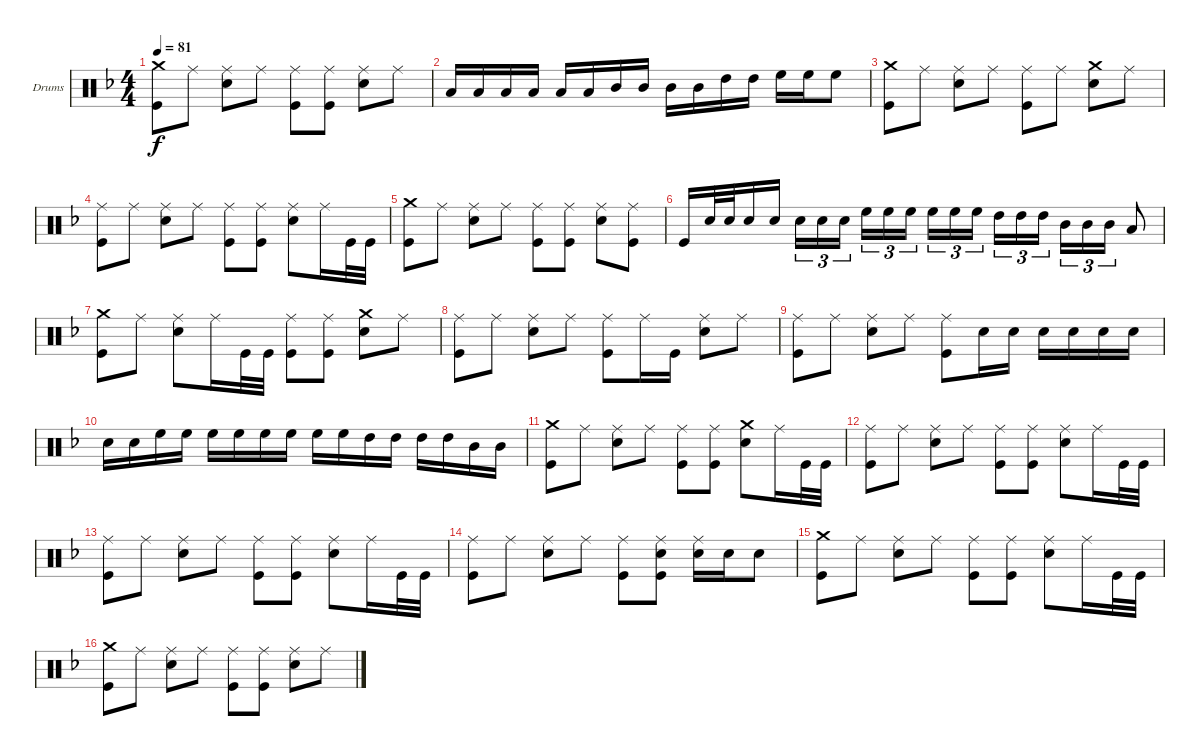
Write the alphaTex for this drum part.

\bracketExtendMode groupsimilarinstruments
\firstSystemTrackNameOrientation horizontal
\otherSystemsTrackNameOrientation horizontal
\track ("Vinny Appice" "Drums") {instrument percussion}
\staff {score}
\articulation defaults
\ts (4 4)
\tempo 81
\clef neutral
\ks dminor
("Crash medium (hit)" "Kick (hit)").8{dy f} "Ride (middle)".8 ("Ride (middle)" "Snare (hit) 2").8 "Ride (middle)".8 ("Ride (middle)" "Kick (hit)").8 ("Kick (hit)" "Ride (middle)").8 ("Ride (middle)" "Snare (hit) 2").8 "Ride (middle)".8 |
"Low Tom (hit)".16 "Low Tom (hit)".16 "Low Tom (hit)".16 "Low Tom (hit)".16 "Low Tom (hit)".16 "Low Tom (hit)".16 "Mid Tom (hit)".16 "Mid Tom (hit)".16 "Mid Tom (hit)".16 "Mid Tom (hit)".16 "High Tom (hit)".16 "High Tom (hit)".16 "High Floor Tom (hit)".16 "High Floor Tom (hit)".16 "High Floor Tom (hit)".8 |
("Crash medium (hit)" "Kick (hit)").8 "Ride (middle)".8 ("Ride (middle)" "Snare (hit) 2").8 "Ride (middle)".8 ("Ride (middle)" "Kick (hit)").8 "Ride (middle)".8 ("Crash medium (hit)" "Snare (hit) 2").8 "Ride (middle)".8 |
("Ride (middle)" "Kick (hit)").8 "Ride (middle)".8 ("Ride (middle)" "Snare (hit) 2").8 "Ride (middle)".8 ("Ride (middle)" "Kick (hit)").8 ("Kick (hit)" "Ride (middle)").8 ("Ride (middle)" "Snare (hit) 2").8 "Ride (middle)".16 "Kick (hit)".32 "Kick (hit)".32 |
("Kick (hit)" "Crash medium (hit)").8 "Ride (middle)".8 ("Ride (middle)" "Snare (hit) 2").8 "Ride (middle)".8 ("Ride (middle)" "Kick (hit)").8 ("Kick (hit)" "Ride (middle)").8 ("Ride (middle)" "Snare (hit) 2").8 ("Kick (hit)" "Ride (middle)").8 |
"Kick (hit)".16 "Snare (hit) 2".32 "Snare (hit) 2".32 "Snare (hit) 2".16 "Snare (hit) 2".16 "Snare (hit) 2".16{tu (3 2)} "Snare (hit) 2".16{tu (3 2)} "Snare (hit) 2".16{tu (3 2)} "High Floor Tom (hit)".16{tu (3 2)} "High Floor Tom (hit)".16{tu (3 2)} "High Floor Tom (hit)".16{tu (3 2)} "High Floor Tom (hit)".16{tu (3 2)} "High Floor Tom (hit)".16{tu (3 2)} "High Floor Tom (hit)".16{tu (3 2)} "High Tom (hit)".16{tu (3 2)} "High Tom (hit)".16{tu (3 2)} "High Tom (hit)".16{tu (3 2)} "Mid Tom (hit)".16{tu (3 2)} "Mid Tom (hit)".16{tu (3 2)} "Mid Tom (hit)".16{tu (3 2)} "Low Tom (hit)".8 |
("Crash medium (hit)" "Kick (hit)").8 "Ride (middle)".8 ("Ride (middle)" "Snare (hit) 2").8 "Ride (middle)".16 "Kick (hit)".32 "Kick (hit)".32 ("Ride (middle)" "Kick (hit)").8 ("Ride (middle)" "Kick (hit)").8 ("Crash medium (hit)" "Snare (hit) 2").8 "Ride (middle)".8 |
("Ride (middle)" "Kick (hit)").8 "Ride (middle)".8 ("Ride (middle)" "Snare (hit) 2").8 "Ride (middle)".8 ("Ride (middle)" "Kick (hit)").8 "Ride (middle)".16 "Kick (hit)".16 ("Ride (middle)" "Snare (hit) 2").8 "Ride (middle)".8 |
("Ride (middle)" "Kick (hit)").8 "Ride (middle)".8 ("Ride (middle)" "Snare (hit) 2").8 "Ride (middle)".8 ("Ride (middle)" "Kick (hit)").8 "Snare (hit) 2".16 "Snare (hit) 2".16 "Snare (hit) 2".16 "Snare (hit) 2".16 "Snare (hit) 2".16 "Snare (hit) 2".16 |
"Snare (hit) 2".16 "Snare (hit) 2".16 "High Floor Tom (hit)".16 "High Floor Tom (hit)".16 "High Floor Tom (hit)".16 "High Floor Tom (hit)".16 "High Floor Tom (hit)".16 "High Floor Tom (hit)".16 "High Floor Tom (hit)".16 "High Floor Tom (hit)".16 "High Tom (hit)".16 "High Tom (hit)".16 "High Tom (hit)".16 "High Tom (hit)".16 "Mid Tom (hit)".16 "Mid Tom (hit)".16 |
("Crash medium (hit)" "Kick (hit)").8 "Ride (middle)".8 ("Ride (middle)" "Snare (hit) 2").8 "Ride (middle)".8 ("Ride (middle)" "Kick (hit)").8 ("Ride (middle)" "Kick (hit)").8 ("Crash medium (hit)" "Snare (hit) 2").8 "Ride (middle)".16 "Kick (hit)".32 "Kick (hit)".32 |
("Ride (middle)" "Kick (hit)").8 "Ride (middle)".8 ("Ride (middle)" "Snare (hit) 2").8 "Ride (middle)".8 ("Ride (middle)" "Kick (hit)").8 ("Ride (middle)" "Kick (hit)").8 ("Ride (middle)" "Snare (hit) 2").8 "Ride (middle)".16 "Kick (hit)".32 "Kick (hit)".32 |
("Ride (middle)" "Kick (hit)").8 "Ride (middle)".8 ("Ride (middle)" "Snare (hit) 2").8 "Ride (middle)".8 ("Ride (middle)" "Kick (hit)").8 ("Ride (middle)" "Kick (hit)").8 ("Ride (middle)" "Snare (hit) 2").8 "Ride (middle)".16 "Kick (hit)".32 "Kick (hit)".32 |
("Ride (middle)" "Kick (hit)").8 "Ride (middle)".8 ("Ride (middle)" "Snare (hit) 2").8 "Ride (middle)".8 ("Ride (middle)" "Kick (hit)").8 ("Snare (hit) 2" "Ride (middle)" "Kick (hit)").8 ("Ride (middle)" "Snare (hit) 2").16 "Snare (hit) 2".16 "Snare (hit) 2".8 |
("Crash medium (hit)" "Kick (hit)").8 "Ride (middle)".8 ("Ride (middle)" "Snare (hit) 2").8 "Ride (middle)".8 ("Ride (middle)" "Kick (hit)").8 ("Ride (middle)" "Kick (hit)").8 ("Ride (middle)" "Snare (hit) 2").8 "Ride (middle)".16 "Kick (hit)".32 "Kick (hit)".32 |
("Crash medium (hit)" "Kick (hit)").8 "Ride (middle)".8 ("Ride (middle)" "Snare (hit) 2").8 "Ride (middle)".8 ("Ride (middle)" "Kick (hit)").8 ("Ride (middle)" "Kick (hit)").8 ("Ride (middle)" "Snare (hit) 2").8 "Ride (middle)".8
